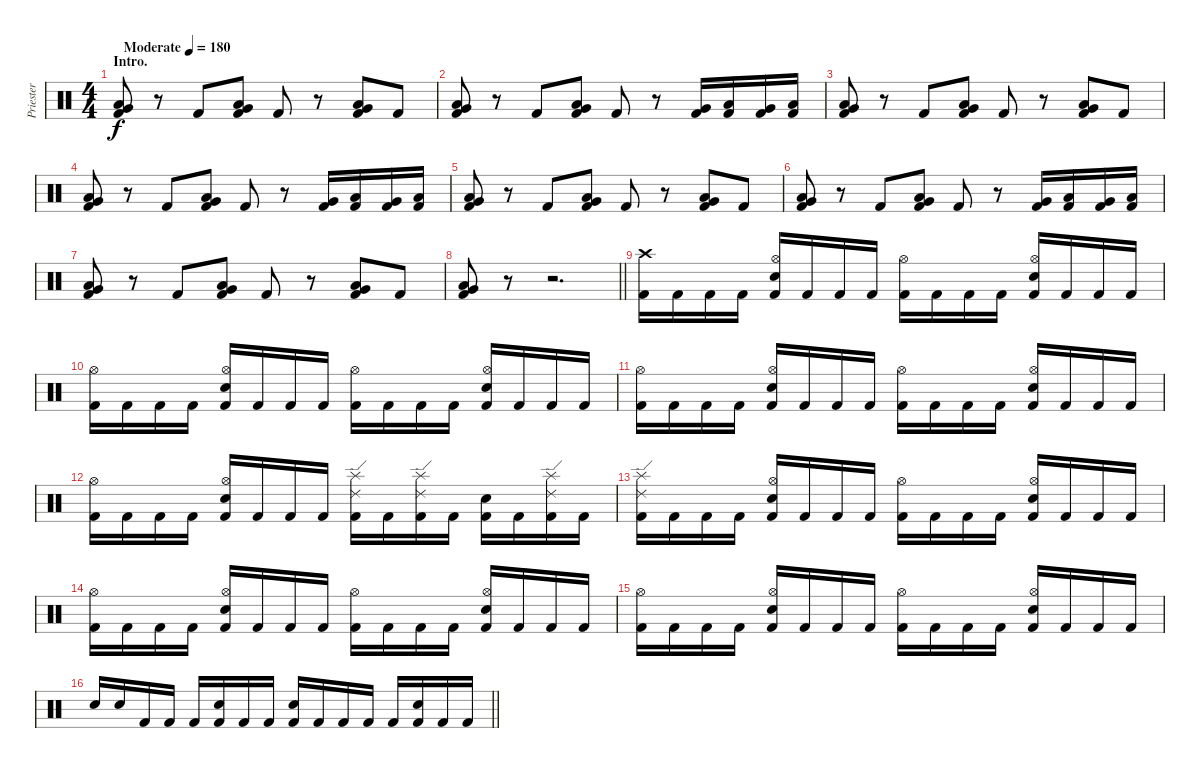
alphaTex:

\track ("Priester" "Priester") {instrument percussion}
\staff {score}
\articulation defaults
\ts (4 4)
\section ("" "Intro.")
\tempo (180 "Moderate")
\clef neutral
\ks c
("Low Floor Tom (hit)" "Very Low Tom (hit)" "Kick (hit) 2").8{dy f} r.8 "Kick (hit) 2".8 ("Low Floor Tom (hit)" "Very Low Tom (hit)" "Kick (hit) 2").8 "Kick (hit) 2".8 r.8 ("Low Floor Tom (hit)" "Very Low Tom (hit)" "Kick (hit) 2").8 "Kick (hit) 2".8 |
("Low Floor Tom (hit)" "Very Low Tom (hit)" "Kick (hit) 2").8 r.8 "Kick (hit) 2".8 ("Low Floor Tom (hit)" "Very Low Tom (hit)" "Kick (hit) 2").8 "Kick (hit) 2".8 r.8 ("Very Low Tom (hit)" "Kick (hit) 2").16 ("Low Floor Tom (hit)" "Kick (hit) 2").16 ("Very Low Tom (hit)" "Kick (hit) 2").16 ("Low Floor Tom (hit)" "Kick (hit) 2").16 |
("Low Floor Tom (hit)" "Very Low Tom (hit)" "Kick (hit) 2").8 r.8 "Kick (hit) 2".8 ("Low Floor Tom (hit)" "Very Low Tom (hit)" "Kick (hit) 2").8 "Kick (hit) 2".8 r.8 ("Low Floor Tom (hit)" "Very Low Tom (hit)" "Kick (hit) 2").8 "Kick (hit) 2".8 |
("Low Floor Tom (hit)" "Very Low Tom (hit)" "Kick (hit) 2").8 r.8 "Kick (hit) 2".8 ("Low Floor Tom (hit)" "Very Low Tom (hit)" "Kick (hit) 2").8 "Kick (hit) 2".8 r.8 ("Very Low Tom (hit)" "Kick (hit) 2").16 ("Low Floor Tom (hit)" "Kick (hit) 2").16 ("Very Low Tom (hit)" "Kick (hit) 2").16 ("Low Floor Tom (hit)" "Kick (hit) 2").16 |
("Low Floor Tom (hit)" "Very Low Tom (hit)" "Kick (hit) 2").8 r.8 "Kick (hit) 2".8 ("Low Floor Tom (hit)" "Very Low Tom (hit)" "Kick (hit) 2").8 "Kick (hit) 2".8 r.8 ("Low Floor Tom (hit)" "Very Low Tom (hit)" "Kick (hit) 2").8 "Kick (hit) 2".8 |
("Low Floor Tom (hit)" "Very Low Tom (hit)" "Kick (hit) 2").8 r.8 "Kick (hit) 2".8 ("Low Floor Tom (hit)" "Very Low Tom (hit)" "Kick (hit) 2").8 "Kick (hit) 2".8 r.8 ("Very Low Tom (hit)" "Kick (hit) 2").16 ("Low Floor Tom (hit)" "Kick (hit) 2").16 ("Very Low Tom (hit)" "Kick (hit) 2").16 ("Low Floor Tom (hit)" "Kick (hit) 2").16 |
("Low Floor Tom (hit)" "Very Low Tom (hit)" "Kick (hit) 2").8 r.8 "Kick (hit) 2".8 ("Low Floor Tom (hit)" "Very Low Tom (hit)" "Kick (hit) 2").8 "Kick (hit) 2".8 r.8 ("Low Floor Tom (hit)" "Very Low Tom (hit)" "Kick (hit) 2").8 "Kick (hit) 2".8 |
\barLineRight lightlight
("Low Floor Tom (hit)" "Very Low Tom (hit)" "Kick (hit) 2").8 r.8 r.2{d} |
("Crash high (hit)" "Kick (hit) 2").16 "Kick (hit) 2".16 "Kick (hit) 2".16 "Kick (hit) 2".16 ("Hi-Hat (open)" "Electric Snare (hit)" "Kick (hit) 2").16 "Kick (hit) 2".16 "Kick (hit) 2".16 "Kick (hit) 2".16 ("Hi-Hat (open)" "Kick (hit) 2").16 "Kick (hit) 2".16 "Kick (hit) 2".16 "Kick (hit) 2".16 ("Hi-Hat (open)" "Electric Snare (hit)" "Kick (hit) 2").16 "Kick (hit) 2".16 "Kick (hit) 2".16 "Kick (hit) 2".16 |
("Hi-Hat (open)" "Kick (hit) 2").16 "Kick (hit) 2".16 "Kick (hit) 2".16 "Kick (hit) 2".16 ("Hi-Hat (open)" "Electric Snare (hit)" "Kick (hit) 2").16 "Kick (hit) 2".16 "Kick (hit) 2".16 "Kick (hit) 2".16 ("Hi-Hat (open)" "Kick (hit) 2").16 "Kick (hit) 2".16 "Kick (hit) 2".16 "Kick (hit) 2".16 ("Hi-Hat (open)" "Electric Snare (hit)" "Kick (hit) 2").16 "Kick (hit) 2".16 "Kick (hit) 2".16 "Kick (hit) 2".16 |
("Hi-Hat (open)" "Kick (hit) 2").16 "Kick (hit) 2".16 "Kick (hit) 2".16 "Kick (hit) 2".16 ("Hi-Hat (open)" "Electric Snare (hit)" "Kick (hit) 2").16 "Kick (hit) 2".16 "Kick (hit) 2".16 "Kick (hit) 2".16 ("Hi-Hat (open)" "Kick (hit) 2").16 "Kick (hit) 2".16 "Kick (hit) 2".16 "Kick (hit) 2".16 ("Hi-Hat (open)" "Electric Snare (hit)" "Kick (hit) 2").16 "Kick (hit) 2".16 "Kick (hit) 2".16 "Kick (hit) 2".16 |
("Hi-Hat (open)" "Kick (hit) 2").16 "Kick (hit) 2".16 "Kick (hit) 2".16 "Kick (hit) 2".16 ("Hi-Hat (open)" "Electric Snare (hit)" "Kick (hit) 2").16 "Kick (hit) 2".16 "Kick (hit) 2".16 "Kick (hit) 2".16 ("Ride (edge) 2" "Splash (hit)" "Kick (hit) 2").16 "Kick (hit) 2".16 ("Ride (edge) 2" "Splash (hit)" "Kick (hit) 2").16 "Kick (hit) 2".16 ("Electric Snare (hit)" "Kick (hit) 2").16 "Kick (hit) 2".16 ("Ride (edge) 2" "Splash (hit)" "Kick (hit) 2").16 "Kick (hit) 2".16 |
("Ride (edge) 2" "Splash (hit)" "Kick (hit) 2").16 "Kick (hit) 2".16 "Kick (hit) 2".16 "Kick (hit) 2".16 ("Hi-Hat (open)" "Electric Snare (hit)" "Kick (hit) 2").16 "Kick (hit) 2".16 "Kick (hit) 2".16 "Kick (hit) 2".16 ("Hi-Hat (open)" "Kick (hit) 2").16 "Kick (hit) 2".16 "Kick (hit) 2".16 "Kick (hit) 2".16 ("Hi-Hat (open)" "Electric Snare (hit)" "Kick (hit) 2").16 "Kick (hit) 2".16 "Kick (hit) 2".16 "Kick (hit) 2".16 |
("Hi-Hat (open)" "Kick (hit) 2").16 "Kick (hit) 2".16 "Kick (hit) 2".16 "Kick (hit) 2".16 ("Hi-Hat (open)" "Electric Snare (hit)" "Kick (hit) 2").16 "Kick (hit) 2".16 "Kick (hit) 2".16 "Kick (hit) 2".16 ("Hi-Hat (open)" "Kick (hit) 2").16 "Kick (hit) 2".16 "Kick (hit) 2".16 "Kick (hit) 2".16 ("Hi-Hat (open)" "Electric Snare (hit)" "Kick (hit) 2").16 "Kick (hit) 2".16 "Kick (hit) 2".16 "Kick (hit) 2".16 |
("Hi-Hat (open)" "Kick (hit) 2").16 "Kick (hit) 2".16 "Kick (hit) 2".16 "Kick (hit) 2".16 ("Hi-Hat (open)" "Electric Snare (hit)" "Kick (hit) 2").16 "Kick (hit) 2".16 "Kick (hit) 2".16 "Kick (hit) 2".16 ("Hi-Hat (open)" "Kick (hit) 2").16 "Kick (hit) 2".16 "Kick (hit) 2".16 "Kick (hit) 2".16 ("Hi-Hat (open)" "Electric Snare (hit)" "Kick (hit) 2").16 "Kick (hit) 2".16 "Kick (hit) 2".16 "Kick (hit) 2".16 |
\barLineRight lightlight "Electric Snare (hit)".16 "Electric Snare (hit)".16 "Kick (hit) 2".16 "Kick (hit) 2".16 "Kick (hit) 2".16
("Electric Snare (hit)" "Kick (hit) 2").16 "Kick (hit) 2".16 "Kick (hit) 2".16 ("Electric Snare (hit)" "Kick (hit) 2").16 "Kick (hit) 2".16 "Kick (hit) 2".16 "Kick (hit) 2".16 "Kick (hit) 2".16 ("Electric Snare (hit)" "Kick (hit) 2").16 "Kick (hit) 2".16 "Kick (hit) 2".16
